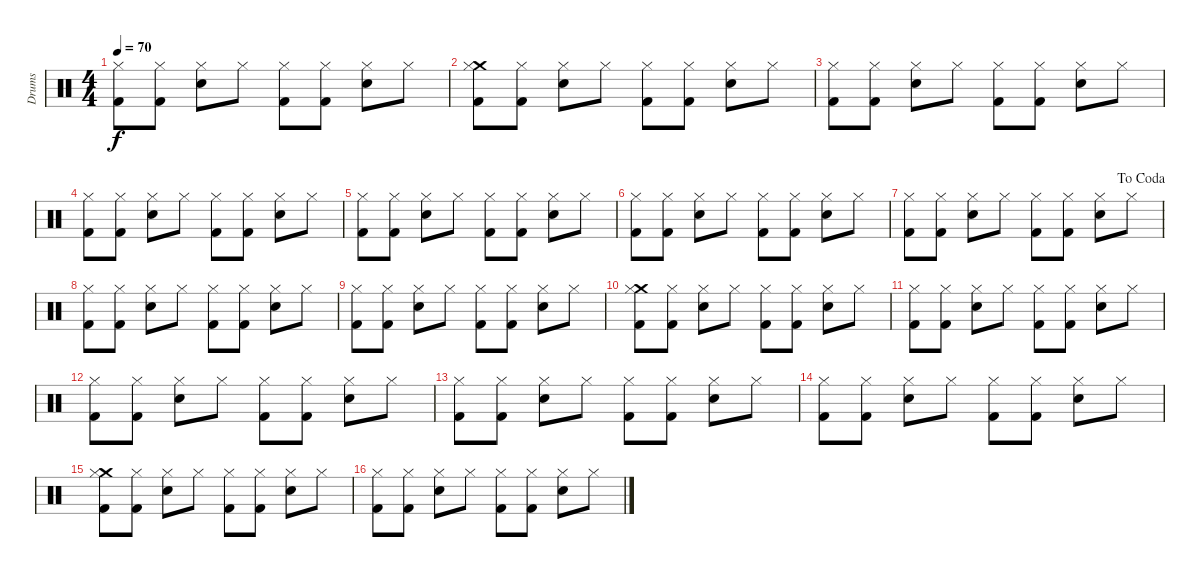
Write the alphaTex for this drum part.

\track ("Drums" "Drums") {instrument percussion bank 177}
\staff {score}
\articulation defaults
\ts (4 4)
\tempo 70
\clef neutral
\ks c
("Kick (hit) 2" "Hi-Hat (closed)").8{dy f} ("Hi-Hat (closed)" "Kick (hit) 2").8 ("Hi-Hat (closed)" "Snare (hit) 2").8 "Hi-Hat (closed)".8 ("Kick (hit) 2" "Hi-Hat (closed)").8 ("Hi-Hat (closed)" "Kick (hit) 2").8 ("Hi-Hat (closed)" "Snare (hit) 2").8 "Hi-Hat (closed)".8 |
("Kick (hit) 2" "Crash medium (hit)" "Hi-Hat (closed)").8 ("Hi-Hat (closed)" "Kick (hit) 2").8 ("Hi-Hat (closed)" "Snare (hit) 2").8 "Hi-Hat (closed)".8 ("Kick (hit) 2" "Hi-Hat (closed)").8 ("Hi-Hat (closed)" "Kick (hit) 2").8 ("Hi-Hat (closed)" "Snare (hit) 2").8 "Hi-Hat (closed)".8 |
("Kick (hit) 2" "Hi-Hat (closed)").8 ("Hi-Hat (closed)" "Kick (hit) 2").8 ("Hi-Hat (closed)" "Snare (hit) 2").8 "Hi-Hat (closed)".8 ("Kick (hit) 2" "Hi-Hat (closed)").8 ("Hi-Hat (closed)" "Kick (hit) 2").8 ("Hi-Hat (closed)" "Snare (hit) 2").8 "Hi-Hat (closed)".8 |
("Kick (hit) 2" "Hi-Hat (closed)").8 ("Hi-Hat (closed)" "Kick (hit) 2").8 ("Hi-Hat (closed)" "Snare (hit) 2").8 "Hi-Hat (closed)".8 ("Kick (hit) 2" "Hi-Hat (closed)").8 ("Hi-Hat (closed)" "Kick (hit) 2").8 ("Hi-Hat (closed)" "Snare (hit) 2").8 "Hi-Hat (closed)".8 |
("Kick (hit) 2" "Hi-Hat (closed)").8 ("Hi-Hat (closed)" "Kick (hit) 2").8 ("Hi-Hat (closed)" "Snare (hit) 2").8 "Hi-Hat (closed)".8 ("Kick (hit) 2" "Hi-Hat (closed)").8 ("Hi-Hat (closed)" "Kick (hit) 2").8 ("Hi-Hat (closed)" "Snare (hit) 2").8 "Hi-Hat (closed)".8 |
("Kick (hit) 2" "Hi-Hat (closed)").8 ("Hi-Hat (closed)" "Kick (hit) 2").8 ("Hi-Hat (closed)" "Snare (hit) 2").8 "Hi-Hat (closed)".8 ("Kick (hit) 2" "Hi-Hat (closed)").8 ("Hi-Hat (closed)" "Kick (hit) 2").8 ("Hi-Hat (closed)" "Snare (hit) 2").8 "Hi-Hat (closed)".8 |
\jump dacoda
("Kick (hit) 2" "Hi-Hat (closed)").8 ("Hi-Hat (closed)" "Kick (hit) 2").8 ("Hi-Hat (closed)" "Snare (hit) 2").8 "Hi-Hat (closed)".8 ("Kick (hit) 2" "Hi-Hat (closed)").8 ("Hi-Hat (closed)" "Kick (hit) 2").8 ("Hi-Hat (closed)" "Snare (hit) 2").8 "Hi-Hat (closed)".8 |
("Kick (hit) 2" "Hi-Hat (closed)").8 ("Hi-Hat (closed)" "Kick (hit) 2").8 ("Hi-Hat (closed)" "Snare (hit) 2").8 "Hi-Hat (closed)".8 ("Kick (hit) 2" "Hi-Hat (closed)").8 ("Hi-Hat (closed)" "Kick (hit) 2").8 ("Hi-Hat (closed)" "Snare (hit) 2").8 "Hi-Hat (closed)".8 |
("Kick (hit) 2" "Hi-Hat (closed)").8 ("Hi-Hat (closed)" "Kick (hit) 2").8 ("Hi-Hat (closed)" "Snare (hit) 2").8 "Hi-Hat (closed)".8 ("Kick (hit) 2" "Hi-Hat (closed)").8 ("Hi-Hat (closed)" "Kick (hit) 2").8 ("Hi-Hat (closed)" "Snare (hit) 2").8 "Hi-Hat (closed)".8 |
("Kick (hit) 2" "Crash medium (hit)" "Hi-Hat (closed)").8 ("Hi-Hat (closed)" "Kick (hit) 2").8 ("Hi-Hat (closed)" "Snare (hit) 2").8 "Hi-Hat (closed)".8 ("Kick (hit) 2" "Hi-Hat (closed)").8 ("Hi-Hat (closed)" "Kick (hit) 2").8 ("Hi-Hat (closed)" "Snare (hit) 2").8 "Hi-Hat (closed)".8 |
("Kick (hit) 2" "Hi-Hat (closed)").8 ("Hi-Hat (closed)" "Kick (hit) 2").8 ("Hi-Hat (closed)" "Snare (hit) 2").8 "Hi-Hat (closed)".8 ("Kick (hit) 2" "Hi-Hat (closed)").8 ("Hi-Hat (closed)" "Kick (hit) 2").8 ("Hi-Hat (closed)" "Snare (hit) 2").8 "Hi-Hat (closed)".8 |
("Kick (hit) 2" "Hi-Hat (closed)").8 ("Hi-Hat (closed)" "Kick (hit) 2").8 ("Hi-Hat (closed)" "Snare (hit) 2").8 "Hi-Hat (closed)".8 ("Kick (hit) 2" "Hi-Hat (closed)").8 ("Hi-Hat (closed)" "Kick (hit) 2").8 ("Hi-Hat (closed)" "Snare (hit) 2").8 "Hi-Hat (closed)".8 |
("Kick (hit) 2" "Hi-Hat (closed)").8 ("Hi-Hat (closed)" "Kick (hit) 2").8 ("Hi-Hat (closed)" "Snare (hit) 2").8 "Hi-Hat (closed)".8 ("Kick (hit) 2" "Hi-Hat (closed)").8 ("Hi-Hat (closed)" "Kick (hit) 2").8 ("Hi-Hat (closed)" "Snare (hit) 2").8 "Hi-Hat (closed)".8 |
("Kick (hit) 2" "Hi-Hat (closed)").8 ("Hi-Hat (closed)" "Kick (hit) 2").8 ("Hi-Hat (closed)" "Snare (hit) 2").8 "Hi-Hat (closed)".8 ("Kick (hit) 2" "Hi-Hat (closed)").8 ("Hi-Hat (closed)" "Kick (hit) 2").8 ("Hi-Hat (closed)" "Snare (hit) 2").8 "Hi-Hat (closed)".8 |
("Kick (hit) 2" "Crash medium (hit)" "Hi-Hat (closed)").8 ("Hi-Hat (closed)" "Kick (hit) 2").8 ("Hi-Hat (closed)" "Snare (hit) 2").8 "Hi-Hat (closed)".8 ("Kick (hit) 2" "Hi-Hat (closed)").8 ("Hi-Hat (closed)" "Kick (hit) 2").8 ("Hi-Hat (closed)" "Snare (hit) 2").8 "Hi-Hat (closed)".8 |
("Kick (hit) 2" "Hi-Hat (closed)").8 ("Hi-Hat (closed)" "Kick (hit) 2").8 ("Hi-Hat (closed)" "Snare (hit) 2").8 "Hi-Hat (closed)".8 ("Kick (hit) 2" "Hi-Hat (closed)").8 ("Hi-Hat (closed)" "Kick (hit) 2").8 ("Hi-Hat (closed)" "Snare (hit) 2").8 "Hi-Hat (closed)".8
